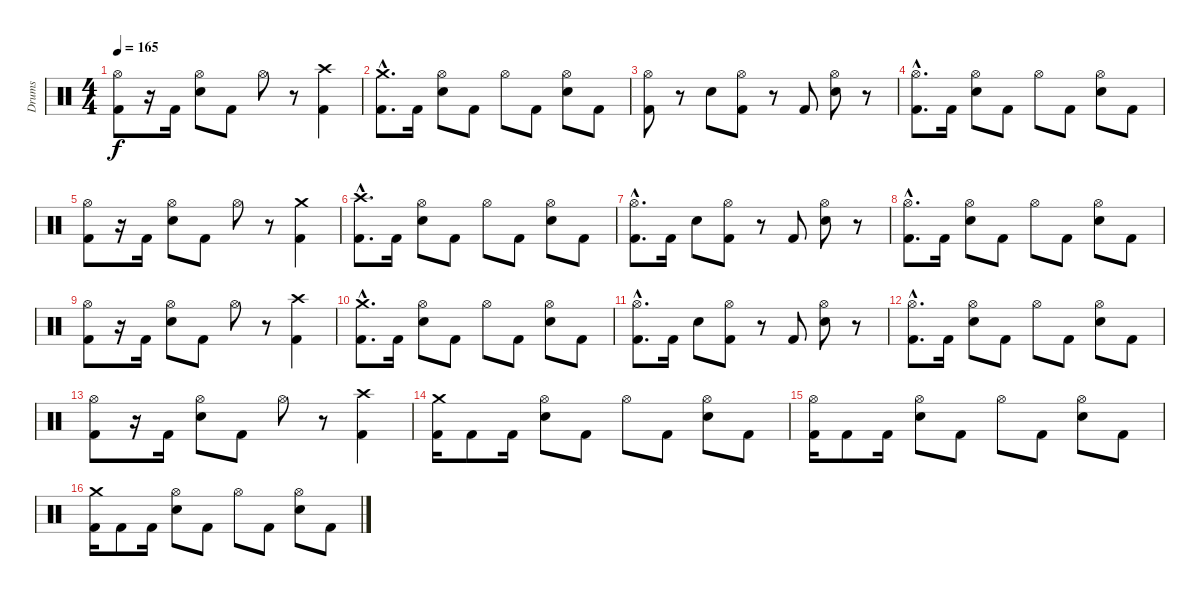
\track ("Drums" "Drums") {instrument percussion}
\staff {score}
\articulation defaults
\ts (4 4)
\tempo 165
\clef neutral
\ks c
("Hi-Hat (open)" "Kick (hit) 2").8{dy f} r.16 "Kick (hit) 2".16 ("Hi-Hat (open)" "Snare (hit) 2").8 "Kick (hit) 2".8 "Hi-Hat (open)".8 r.8 ("Crash high (hit)" "Kick (hit) 2").4 |
("Crash medium (hit)"{hac} "Kick (hit) 2"{hac}).8{d} "Kick (hit) 2".16 ("Hi-Hat (open)" "Snare (hit) 2").8 "Kick (hit) 2".8 "Hi-Hat (open)".8 "Kick (hit) 2".8 ("Hi-Hat (open)" "Snare (hit) 2").8 "Kick (hit) 2".8 |
("Hi-Hat (open)" "Kick (hit) 2").8 r.8 "Snare (hit) 2".8 ("Hi-Hat (open)" "Kick (hit) 2").8 r.8 "Kick (hit) 2".8 ("Hi-Hat (open)" "Snare (hit) 2").8 r.8 |
("Hi-Hat (open)"{hac} "Kick (hit) 2"{hac}).8{d} "Kick (hit) 2".16 ("Hi-Hat (open)" "Snare (hit) 2").8 "Kick (hit) 2".8 "Hi-Hat (open)".8 "Kick (hit) 2".8 ("Hi-Hat (open)" "Snare (hit) 2").8 "Kick (hit) 2".8 |
("Hi-Hat (open)" "Kick (hit) 2").8 r.16 "Kick (hit) 2".16 ("Hi-Hat (open)" "Snare (hit) 2").8 "Kick (hit) 2".8 "Hi-Hat (open)".8 r.8 ("Crash medium (hit)" "Kick (hit) 2").4 |
("Crash high (hit)"{hac} "Kick (hit) 2"{hac}).8{d} "Kick (hit) 2".16 ("Hi-Hat (open)" "Snare (hit) 2").8 "Kick (hit) 2".8 "Hi-Hat (open)".8 "Kick (hit) 2".8 ("Hi-Hat (open)" "Snare (hit) 2").8 "Kick (hit) 2".8 |
("Hi-Hat (open)"{hac} "Kick (hit) 2"{hac}).8{d} "Kick (hit) 2".16 "Snare (hit) 2".8 ("Hi-Hat (open)" "Kick (hit) 2").8 r.8 "Kick (hit) 2".8 ("Hi-Hat (open)" "Snare (hit) 2").8 r.8 |
("Hi-Hat (open)"{hac} "Kick (hit) 2"{hac}).8{d} "Kick (hit) 2".16 ("Hi-Hat (open)" "Snare (hit) 2").8 "Kick (hit) 2".8 "Hi-Hat (open)".8 "Kick (hit) 2".8 ("Hi-Hat (open)" "Snare (hit) 2").8 "Kick (hit) 2".8 |
("Hi-Hat (open)" "Kick (hit) 2").8 r.16 "Kick (hit) 2".16 ("Hi-Hat (open)" "Snare (hit) 2").8 "Kick (hit) 2".8 "Hi-Hat (open)".8 r.8 ("Crash high (hit)" "Kick (hit) 2").4 |
("Crash medium (hit)"{hac} "Kick (hit) 2"{hac}).8{d} "Kick (hit) 2".16 ("Hi-Hat (open)" "Snare (hit) 2").8 "Kick (hit) 2".8 "Hi-Hat (open)".8 "Kick (hit) 2".8 ("Hi-Hat (open)" "Snare (hit) 2").8 "Kick (hit) 2".8 |
("Hi-Hat (open)"{hac} "Kick (hit) 2"{hac}).8{d} "Kick (hit) 2".16 "Snare (hit) 2".8 ("Hi-Hat (open)" "Kick (hit) 2").8 r.8 "Kick (hit) 2".8 ("Hi-Hat (open)" "Snare (hit) 2").8 r.8 |
("Hi-Hat (open)"{hac} "Kick (hit) 2"{hac}).8{d} "Kick (hit) 2".16 ("Hi-Hat (open)" "Snare (hit) 2").8 "Kick (hit) 2".8 "Hi-Hat (open)".8 "Kick (hit) 2".8 ("Hi-Hat (open)" "Snare (hit) 2").8 "Kick (hit) 2".8 |
("Hi-Hat (open)" "Kick (hit) 2").8 r.16 "Kick (hit) 2".16 ("Hi-Hat (open)" "Snare (hit) 2").8 "Kick (hit) 2".8 "Hi-Hat (open)".8 r.8 ("Crash high (hit)" "Kick (hit) 2").4 |
("Crash medium (hit)" "Kick (hit) 2").16 "Kick (hit) 2".8 "Kick (hit) 2".16 ("Hi-Hat (open)" "Snare (hit) 2").8 "Kick (hit) 2".8 "Hi-Hat (open)".8 "Kick (hit) 2".8 ("Hi-Hat (open)" "Snare (hit) 2").8 "Kick (hit) 2".8 |
("Hi-Hat (open)" "Kick (hit) 2").16 "Kick (hit) 2".8 "Kick (hit) 2".16 ("Hi-Hat (open)" "Snare (hit) 2").8 "Kick (hit) 2".8 "Hi-Hat (open)".8 "Kick (hit) 2".8 ("Hi-Hat (open)" "Snare (hit) 2").8 "Kick (hit) 2".8 |
("Crash medium (hit)" "Kick (hit) 2").16 "Kick (hit) 2".8 "Kick (hit) 2".16 ("Hi-Hat (open)" "Snare (hit) 2").8 "Kick (hit) 2".8 "Hi-Hat (open)".8 "Kick (hit) 2".8 ("Hi-Hat (open)" "Snare (hit) 2").8 "Kick (hit) 2".8
